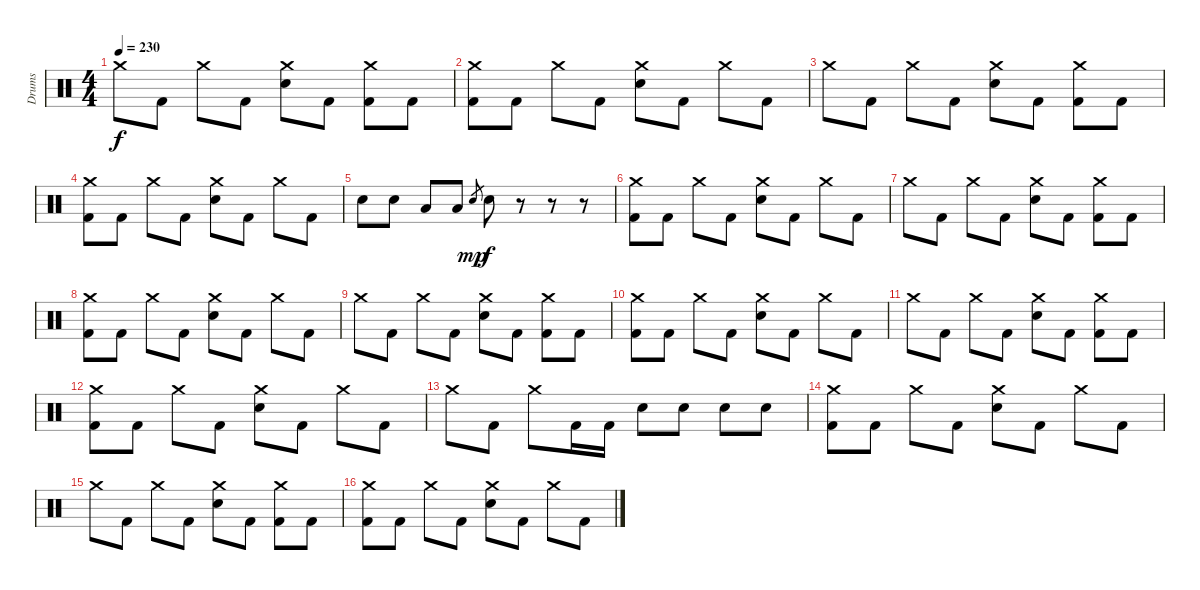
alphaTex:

\track ("Drums" "Drums") {instrument percussion}
\staff {score}
\articulation defaults
\ts (4 4)
\tempo 230
\clef neutral
\ks c "Crash medium (hit)".8{dy f} "Kick (hit) 2".8 "Crash medium (hit)".8 "Kick (hit) 2".8
("Electric Snare (hit)" "Crash medium (hit)").8 "Kick (hit) 2".8 ("Kick (hit) 2" "Crash medium (hit)").8 "Kick (hit) 2".8 |
("Kick (hit) 2" "Crash medium (hit)").8 "Kick (hit) 2".8 "Crash medium (hit)".8 "Kick (hit) 2".8 ("Electric Snare (hit)" "Crash medium (hit)").8 "Kick (hit) 2".8 "Crash medium (hit)".8 "Kick (hit) 2".8 |
"Crash medium (hit)".8 "Kick (hit) 2".8 "Crash medium (hit)".8 "Kick (hit) 2".8 ("Electric Snare (hit)" "Crash medium (hit)").8 "Kick (hit) 2".8 ("Kick (hit) 2" "Crash medium (hit)").8 "Kick (hit) 2".8 |
("Kick (hit) 2" "Crash medium (hit)").8 "Kick (hit) 2".8 "Crash medium (hit)".8 "Kick (hit) 2".8 ("Electric Snare (hit)" "Crash medium (hit)").8 "Kick (hit) 2".8 "Crash medium (hit)".8 "Kick (hit) 2".8 |
"Electric Snare (hit)".8 "Electric Snare (hit)".8 "Low Tom (hit)".8 "Low Tom (hit)".8 "Electric Snare (hit)".8{gr dy mp} "Electric Snare (hit)".8{dy f} r.8 r.8 r.8 |
("Kick (hit) 2" "Crash medium (hit)").8 "Kick (hit) 2".8 "Crash medium (hit)".8 "Kick (hit) 2".8 ("Electric Snare (hit)" "Crash medium (hit)").8 "Kick (hit) 2".8 "Crash medium (hit)".8 "Kick (hit) 2".8 |
"Crash medium (hit)".8 "Kick (hit) 2".8 "Crash medium (hit)".8 "Kick (hit) 2".8 ("Electric Snare (hit)" "Crash medium (hit)").8 "Kick (hit) 2".8 ("Kick (hit) 2" "Crash medium (hit)").8 "Kick (hit) 2".8 |
("Kick (hit) 2" "Crash medium (hit)").8 "Kick (hit) 2".8 "Crash medium (hit)".8 "Kick (hit) 2".8 ("Electric Snare (hit)" "Crash medium (hit)").8 "Kick (hit) 2".8 "Crash medium (hit)".8 "Kick (hit) 2".8 |
"Crash medium (hit)".8 "Kick (hit) 2".8 "Crash medium (hit)".8 "Kick (hit) 2".8 ("Electric Snare (hit)" "Crash medium (hit)").8 "Kick (hit) 2".8 ("Kick (hit) 2" "Crash medium (hit)").8 "Kick (hit) 2".8 |
("Kick (hit) 2" "Crash medium (hit)").8 "Kick (hit) 2".8 "Crash medium (hit)".8 "Kick (hit) 2".8 ("Electric Snare (hit)" "Crash medium (hit)").8 "Kick (hit) 2".8 "Crash medium (hit)".8 "Kick (hit) 2".8 |
"Crash medium (hit)".8 "Kick (hit) 2".8 "Crash medium (hit)".8 "Kick (hit) 2".8 ("Electric Snare (hit)" "Crash medium (hit)").8 "Kick (hit) 2".8 ("Kick (hit) 2" "Crash medium (hit)").8 "Kick (hit) 2".8 |
("Kick (hit) 2" "Crash medium (hit)").8 "Kick (hit) 2".8 "Crash medium (hit)".8 "Kick (hit) 2".8 ("Electric Snare (hit)" "Crash medium (hit)").8 "Kick (hit) 2".8 "Crash medium (hit)".8 "Kick (hit) 2".8 |
"Crash medium (hit)".8 "Kick (hit) 2".8 "Crash medium (hit)".8 "Kick (hit) 2".16 "Kick (hit) 2".16 "Electric Snare (hit)".8 "Electric Snare (hit)".8 "Electric Snare (hit)".8 "Electric Snare (hit)".8 |
("Kick (hit) 2" "Crash medium (hit)").8 "Kick (hit) 2".8 "Crash medium (hit)".8 "Kick (hit) 2".8 ("Electric Snare (hit)" "Crash medium (hit)").8 "Kick (hit) 2".8 "Crash medium (hit)".8 "Kick (hit) 2".8 |
"Crash medium (hit)".8 "Kick (hit) 2".8 "Crash medium (hit)".8 "Kick (hit) 2".8 ("Electric Snare (hit)" "Crash medium (hit)").8 "Kick (hit) 2".8 ("Kick (hit) 2" "Crash medium (hit)").8 "Kick (hit) 2".8 |
("Kick (hit) 2" "Crash medium (hit)").8 "Kick (hit) 2".8 "Crash medium (hit)".8 "Kick (hit) 2".8 ("Electric Snare (hit)" "Crash medium (hit)").8 "Kick (hit) 2".8 "Crash medium (hit)".8 "Kick (hit) 2".8
